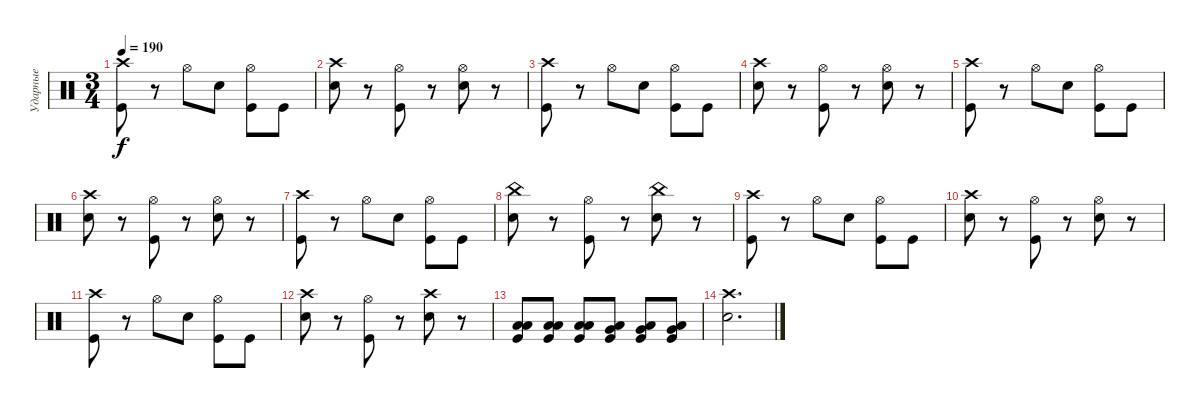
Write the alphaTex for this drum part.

\track ("Ударные" "Ударные") {instrument percussion}
\staff {score}
\articulation defaults
\ts (3 4)
\tempo 190
\clef neutral
\ks c
("Crash high (hit)" "Kick (hit)").8{dy f} r.8 "Hi-Hat (open)".8 "Snare (hit) 2".8 ("Kick (hit)" "Hi-Hat (open)").8 "Kick (hit)".8 |
("Crash high (hit)" "Snare (hit) 2").8 r.8 ("Hi-Hat (open)" "Kick (hit)").8 r.8 ("Snare (hit) 2" "Hi-Hat (open)").8 r.8 |
("Crash high (hit)" "Kick (hit)").8 r.8 "Hi-Hat (open)".8 "Snare (hit) 2".8 ("Kick (hit)" "Hi-Hat (open)").8 "Kick (hit)".8 |
("Crash high (hit)" "Snare (hit) 2").8 r.8 ("Hi-Hat (open)" "Kick (hit)").8 r.8 ("Snare (hit) 2" "Hi-Hat (open)").8 r.8 |
("Crash high (hit)" "Kick (hit)").8 r.8 "Hi-Hat (open)".8 "Snare (hit) 2".8 ("Kick (hit)" "Hi-Hat (open)").8 "Kick (hit)".8 |
("Crash high (hit)" "Snare (hit) 2").8 r.8 ("Hi-Hat (open)" "Kick (hit)").8 r.8 ("Snare (hit) 2" "Hi-Hat (open)").8 r.8 |
("Crash high (hit)" "Kick (hit)").8 r.8 "Hi-Hat (open)".8 "Snare (hit) 2".8 ("Kick (hit)" "Hi-Hat (open)").8 "Kick (hit)".8 |
("China (hit)" "Snare (hit) 2").8 r.8 ("Hi-Hat (open)" "Kick (hit)").8 r.8 ("Snare (hit) 2" "China (hit)").8 r.8 |
("Crash high (hit)" "Kick (hit)").8 r.8 "Hi-Hat (open)".8 "Snare (hit) 2".8 ("Kick (hit)" "Hi-Hat (open)").8 "Kick (hit)".8 |
("Crash high (hit)" "Snare (hit) 2").8 r.8 ("Hi-Hat (open)" "Kick (hit)").8 r.8 ("Snare (hit) 2" "Hi-Hat (open)").8 r.8 |
("Crash high (hit)" "Kick (hit)").8 r.8 "Hi-Hat (open)".8 "Snare (hit) 2".8 ("Kick (hit)" "Hi-Hat (open)").8 "Kick (hit)".8 |
("Crash high (hit)" "Snare (hit) 2").8 r.8 ("Hi-Hat (open)" "Kick (hit)").8 r.8 ("Snare (hit) 2" "Crash high (hit)").8 r.8 |
("Low Tom (hit)" "Low Floor Tom (hit)" "Kick (hit)").8 ("Low Tom (hit)" "Low Floor Tom (hit)" "Kick (hit)").8 ("Low Tom (hit)" "Low Floor Tom (hit)" "Kick (hit)").8 ("Very Low Tom (hit)" "Low Floor Tom (hit)" "Kick (hit)").8 ("Very Low Tom (hit)" "Low Floor Tom (hit)" "Kick (hit)").8 ("Very Low Tom (hit)" "Low Floor Tom (hit)" "Kick (hit)").8 |
("Crash high (hit)" "Snare (hit) 2").2{d}
